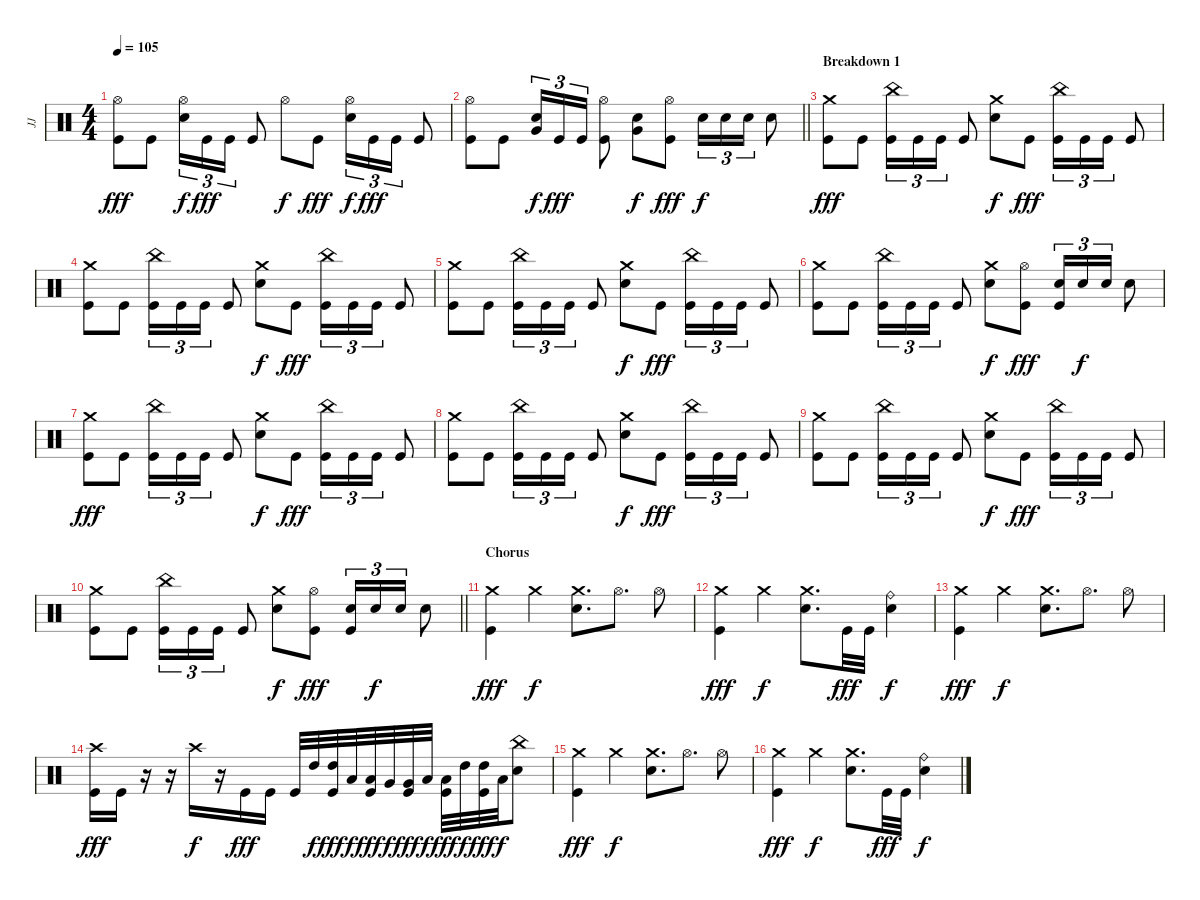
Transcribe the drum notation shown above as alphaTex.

\track ("JJ" "JJ") {instrument percussion}
\staff {score}
\articulation defaults
\ts (4 4)
\tempo 105
\clef neutral
\ks c
("Hi-Hat (open)" "Kick (hit)").8{dy fff} "Kick (hit)".8 ("Hi-Hat (open)" "Electric Snare (hit)").16{tu (3 2) dy f} "Kick (hit)".16{tu (3 2) dy fff} "Kick (hit)".16{tu (3 2)} "Kick (hit)".8 "Hi-Hat (open)".8{dy f} "Kick (hit)".8{dy fff} ("Hi-Hat (open)" "Electric Snare (hit)").16{tu (3 2) dy f} "Kick (hit)".16{tu (3 2) dy fff} "Kick (hit)".16{tu (3 2)} "Kick (hit)".8 |
\barLineRight lightlight
("Hi-Hat (open)" "Kick (hit)").8 "Kick (hit)".8 ("Electric Snare (hit)" "Very Low Tom (hit)").16{tu (3 2) dy f} "Kick (hit)".16{tu (3 2) dy fff} "Kick (hit)".16{tu (3 2)} ("Hi-Hat (open)" "Kick (hit)").8 ("Electric Snare (hit)" "Very Low Tom (hit)").8{dy f} ("Hi-Hat (open)" "Kick (hit)").8{dy fff} "Electric Snare (hit)".16{tu (3 2) dy f} "Electric Snare (hit)".16{tu (3 2)} "Electric Snare (hit)".16{tu (3 2)} "Electric Snare (hit)".8 |
\section ("" "Breakdown 1")
("Crash medium (hit)" "Kick (hit)").8{dy fff} "Kick (hit)".8 ("China (hit)" "Kick (hit)").16{tu (3 2)} "Kick (hit)".16{tu (3 2)} "Kick (hit)".16{tu (3 2)} "Kick (hit)".8 ("Crash medium (hit)" "Electric Snare (hit)").8{dy f} "Kick (hit)".8{dy fff} ("China (hit)" "Kick (hit)").16{tu (3 2)} "Kick (hit)".16{tu (3 2)} "Kick (hit)".16{tu (3 2)} "Kick (hit)".8 |
("Crash medium (hit)" "Kick (hit)").8 "Kick (hit)".8 ("China (hit)" "Kick (hit)").16{tu (3 2)} "Kick (hit)".16{tu (3 2)} "Kick (hit)".16{tu (3 2)} "Kick (hit)".8 ("Crash medium (hit)" "Electric Snare (hit)").8{dy f} "Kick (hit)".8{dy fff} ("China (hit)" "Kick (hit)").16{tu (3 2)} "Kick (hit)".16{tu (3 2)} "Kick (hit)".16{tu (3 2)} "Kick (hit)".8 |
("Crash medium (hit)" "Kick (hit)").8 "Kick (hit)".8 ("China (hit)" "Kick (hit)").16{tu (3 2)} "Kick (hit)".16{tu (3 2)} "Kick (hit)".16{tu (3 2)} "Kick (hit)".8 ("Crash medium (hit)" "Electric Snare (hit)").8{dy f} "Kick (hit)".8{dy fff} ("China (hit)" "Kick (hit)").16{tu (3 2)} "Kick (hit)".16{tu (3 2)} "Kick (hit)".16{tu (3 2)} "Kick (hit)".8 |
("Crash medium (hit)" "Kick (hit)").8 "Kick (hit)".8 ("China (hit)" "Kick (hit)").16{tu (3 2)} "Kick (hit)".16{tu (3 2)} "Kick (hit)".16{tu (3 2)} "Kick (hit)".8 ("Crash medium (hit)" "Electric Snare (hit)").8{dy f} ("Hi-Hat (open)" "Kick (hit)").8{dy fff} ("Electric Snare (hit)" "Kick (hit)").16{tu (3 2)} "Electric Snare (hit)".16{tu (3 2) dy f} "Electric Snare (hit)".16{tu (3 2)} "Electric Snare (hit)".8 |
("Crash medium (hit)" "Kick (hit)").8{dy fff} "Kick (hit)".8 ("China (hit)" "Kick (hit)").16{tu (3 2)} "Kick (hit)".16{tu (3 2)} "Kick (hit)".16{tu (3 2)} "Kick (hit)".8 ("Crash medium (hit)" "Electric Snare (hit)").8{dy f} "Kick (hit)".8{dy fff} ("China (hit)" "Kick (hit)").16{tu (3 2)} "Kick (hit)".16{tu (3 2)} "Kick (hit)".16{tu (3 2)} "Kick (hit)".8 |
("Crash medium (hit)" "Kick (hit)").8 "Kick (hit)".8 ("China (hit)" "Kick (hit)").16{tu (3 2)} "Kick (hit)".16{tu (3 2)} "Kick (hit)".16{tu (3 2)} "Kick (hit)".8 ("Crash medium (hit)" "Electric Snare (hit)").8{dy f} "Kick (hit)".8{dy fff} ("China (hit)" "Kick (hit)").16{tu (3 2)} "Kick (hit)".16{tu (3 2)} "Kick (hit)".16{tu (3 2)} "Kick (hit)".8 |
("Crash medium (hit)" "Kick (hit)").8 "Kick (hit)".8 ("China (hit)" "Kick (hit)").16{tu (3 2)} "Kick (hit)".16{tu (3 2)} "Kick (hit)".16{tu (3 2)} "Kick (hit)".8 ("Crash medium (hit)" "Electric Snare (hit)").8{dy f} "Kick (hit)".8{dy fff} ("China (hit)" "Kick (hit)").16{tu (3 2)} "Kick (hit)".16{tu (3 2)} "Kick (hit)".16{tu (3 2)} "Kick (hit)".8 |
\barLineRight lightlight
("Crash medium (hit)" "Kick (hit)").8 "Kick (hit)".8 ("China (hit)" "Kick (hit)").16{tu (3 2)} "Kick (hit)".16{tu (3 2)} "Kick (hit)".16{tu (3 2)} "Kick (hit)".8 ("Crash medium (hit)" "Electric Snare (hit)").8{dy f} ("Hi-Hat (open)" "Kick (hit)").8{dy fff} ("Electric Snare (hit)" "Kick (hit)").16{tu (3 2)} "Electric Snare (hit)".16{tu (3 2) dy f} "Electric Snare (hit)".16{tu (3 2)} "Electric Snare (hit)".8 |
\section ("" "Chorus")
("Crash medium (hit)" "Kick (hit)").4{dy fff} "Crash medium (hit)".4{dy f} ("Crash medium (hit)" "Electric Snare (hit)").8{d} "Hi-Hat (open)".8{d} "Hi-Hat (open)".8 |
("Crash medium (hit)" "Kick (hit)").4{dy fff} "Crash medium (hit)".4{dy f} ("Crash medium (hit)" "Electric Snare (hit)").8{d} "Kick (hit)".32{dy fff} "Kick (hit)".32 ("Ride (bell)" "Electric Snare (hit)").4{dy f} |
("Crash medium (hit)" "Kick (hit)").4{dy fff} "Crash medium (hit)".4{dy f} ("Crash medium (hit)" "Electric Snare (hit)").8{d} "Hi-Hat (open)".8{d} "Hi-Hat (open)".8 |
("Crash high (hit)" "Kick (hit)").16{dy fff} "Kick (hit)".16 r.16 r.16 "Crash high (hit)".16{dy f} r.16 "Kick (hit)".16{dy fff} "Kick (hit)".16 "Kick (hit)".32 "High Tom (hit)".32{dy f} ("High Tom (hit)" "Kick (hit)").32{dy fff} "Low Tom (hit)".32{dy f} ("Low Tom (hit)" "Kick (hit)").32{dy fff} "Very Low Tom (hit)".32{dy f} ("Very Low Tom (hit)" "Kick (hit)").32{dy fff} "Low Floor Tom (hit)".32{dy f} ("Low Floor Tom (hit)" "Kick (hit)").32{dy fff} "High Tom (hit)".32{dy f} ("High Tom (hit)" "Kick (hit)").32{dy fff} "Low Floor Tom (hit)".32{dy f} ("China (hit)" "Electric Snare (hit)").8 |
("Crash medium (hit)" "Kick (hit)").4{dy fff} "Crash medium (hit)".4{dy f} ("Crash medium (hit)" "Electric Snare (hit)").8{d} "Hi-Hat (open)".8{d} "Hi-Hat (open)".8 |
("Crash medium (hit)" "Kick (hit)").4{dy fff} "Crash medium (hit)".4{dy f} ("Crash medium (hit)" "Electric Snare (hit)").8{d} "Kick (hit)".32{dy fff} "Kick (hit)".32 ("Ride (bell)" "Electric Snare (hit)").4{dy f}
